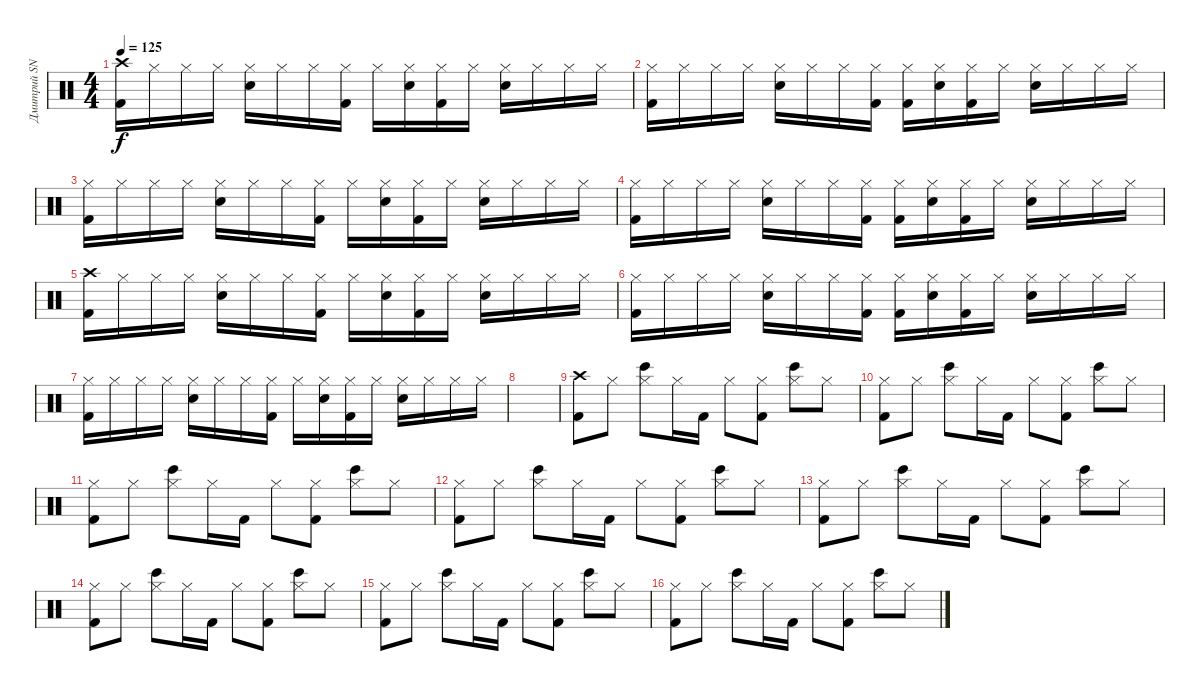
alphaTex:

\track ("Дмитрий SNAKE Хакимов" "Дмитрий SN") {instrument percussion}
\staff {score}
\articulation defaults
\ts (4 4)
\tempo 125
\clef neutral
\ks c
("Crash high (hit)" "Kick (hit) 2").16{dy f} "Hi-Hat (closed)".16 "Hi-Hat (closed)".16 "Hi-Hat (closed)".16 ("Hi-Hat (closed)" "Snare (hit) 2").16 "Hi-Hat (closed)".16 "Hi-Hat (closed)".16 ("Hi-Hat (closed)" "Kick (hit) 2").16 "Hi-Hat (closed)".16 ("Hi-Hat (closed)" "Snare (hit) 2").16 ("Hi-Hat (closed)" "Kick (hit) 2").16 "Hi-Hat (closed)".16 ("Hi-Hat (closed)" "Snare (hit) 2").16 "Hi-Hat (closed)".16 "Hi-Hat (closed)".16 "Hi-Hat (closed)".16 |
("Hi-Hat (closed)" "Kick (hit) 2").16 "Hi-Hat (closed)".16 "Hi-Hat (closed)".16 "Hi-Hat (closed)".16 ("Hi-Hat (closed)" "Snare (hit) 2").16 "Hi-Hat (closed)".16 "Hi-Hat (closed)".16 ("Hi-Hat (closed)" "Kick (hit) 2").16 ("Hi-Hat (closed)" "Kick (hit) 2").16 ("Hi-Hat (closed)" "Snare (hit) 2").16 ("Hi-Hat (closed)" "Kick (hit) 2").16 "Hi-Hat (closed)".16 ("Hi-Hat (closed)" "Snare (hit) 2").16 "Hi-Hat (closed)".16 "Hi-Hat (closed)".16 "Hi-Hat (closed)".16 |
("Hi-Hat (closed)" "Kick (hit) 2").16 "Hi-Hat (closed)".16 "Hi-Hat (closed)".16 "Hi-Hat (closed)".16 ("Hi-Hat (closed)" "Snare (hit) 2").16 "Hi-Hat (closed)".16 "Hi-Hat (closed)".16 ("Hi-Hat (closed)" "Kick (hit) 2").16 "Hi-Hat (closed)".16 ("Hi-Hat (closed)" "Snare (hit) 2").16 ("Hi-Hat (closed)" "Kick (hit) 2").16 "Hi-Hat (closed)".16 ("Hi-Hat (closed)" "Snare (hit) 2").16 "Hi-Hat (closed)".16 "Hi-Hat (closed)".16 "Hi-Hat (closed)".16 |
("Hi-Hat (closed)" "Kick (hit) 2").16 "Hi-Hat (closed)".16 "Hi-Hat (closed)".16 "Hi-Hat (closed)".16 ("Hi-Hat (closed)" "Snare (hit) 2").16 "Hi-Hat (closed)".16 "Hi-Hat (closed)".16 ("Hi-Hat (closed)" "Kick (hit) 2").16 ("Hi-Hat (closed)" "Kick (hit) 2").16 ("Hi-Hat (closed)" "Snare (hit) 2").16 ("Hi-Hat (closed)" "Kick (hit) 2").16 "Hi-Hat (closed)".16 ("Hi-Hat (closed)" "Snare (hit) 2").16 "Hi-Hat (closed)".16 "Hi-Hat (closed)".16 "Hi-Hat (closed)".16 |
("Crash high (hit)" "Kick (hit) 2").16 "Hi-Hat (closed)".16 "Hi-Hat (closed)".16 "Hi-Hat (closed)".16 ("Hi-Hat (closed)" "Snare (hit) 2").16 "Hi-Hat (closed)".16 "Hi-Hat (closed)".16 ("Hi-Hat (closed)" "Kick (hit) 2").16 "Hi-Hat (closed)".16 ("Hi-Hat (closed)" "Snare (hit) 2").16 ("Hi-Hat (closed)" "Kick (hit) 2").16 "Hi-Hat (closed)".16 ("Hi-Hat (closed)" "Snare (hit) 2").16 "Hi-Hat (closed)".16 "Hi-Hat (closed)".16 "Hi-Hat (closed)".16 |
("Hi-Hat (closed)" "Kick (hit) 2").16 "Hi-Hat (closed)".16 "Hi-Hat (closed)".16 "Hi-Hat (closed)".16 ("Hi-Hat (closed)" "Snare (hit) 2").16 "Hi-Hat (closed)".16 "Hi-Hat (closed)".16 ("Hi-Hat (closed)" "Kick (hit) 2").16 ("Hi-Hat (closed)" "Kick (hit) 2").16 ("Hi-Hat (closed)" "Snare (hit) 2").16 ("Hi-Hat (closed)" "Kick (hit) 2").16 "Hi-Hat (closed)".16 ("Hi-Hat (closed)" "Snare (hit) 2").16 "Hi-Hat (closed)".16 "Hi-Hat (closed)".16 "Hi-Hat (closed)".16 |
("Hi-Hat (closed)" "Kick (hit) 2").16 "Hi-Hat (closed)".16 "Hi-Hat (closed)".16 "Hi-Hat (closed)".16 ("Hi-Hat (closed)" "Snare (hit) 2").16 "Hi-Hat (closed)".16 "Hi-Hat (closed)".16 ("Hi-Hat (closed)" "Kick (hit) 2").16 "Hi-Hat (closed)".16 ("Hi-Hat (closed)" "Snare (hit) 2").16 ("Hi-Hat (closed)" "Kick (hit) 2").16 "Hi-Hat (closed)".16 ("Hi-Hat (closed)" "Snare (hit) 2").16 "Hi-Hat (closed)".16 "Hi-Hat (closed)".16 "Hi-Hat (closed)".16 |
|
("Crash high (hit)" "Kick (hit) 2").8 "Hi-Hat (closed)".8 ("Hi-Hat (closed)" "Bongo High (hit)").8 "Hi-Hat (closed)".16 "Kick (hit) 2".16 "Hi-Hat (closed)".8 ("Hi-Hat (closed)" "Kick (hit) 2").8 ("Hi-Hat (closed)" "Bongo High (hit)").8 "Hi-Hat (closed)".8 |
("Hi-Hat (closed)" "Kick (hit) 2").8 "Hi-Hat (closed)".8 ("Hi-Hat (closed)" "Bongo High (hit)").8 "Hi-Hat (closed)".16 "Kick (hit) 2".16 "Hi-Hat (closed)".8 ("Hi-Hat (closed)" "Kick (hit) 2").8 ("Hi-Hat (closed)" "Bongo High (hit)").8 "Hi-Hat (closed)".8 |
("Hi-Hat (closed)" "Kick (hit) 2").8 "Hi-Hat (closed)".8 ("Hi-Hat (closed)" "Bongo High (hit)").8 "Hi-Hat (closed)".16 "Kick (hit) 2".16 "Hi-Hat (closed)".8 ("Hi-Hat (closed)" "Kick (hit) 2").8 ("Hi-Hat (closed)" "Bongo High (hit)").8 "Hi-Hat (closed)".8 |
("Hi-Hat (closed)" "Kick (hit) 2").8 "Hi-Hat (closed)".8 ("Hi-Hat (closed)" "Bongo High (hit)").8 "Hi-Hat (closed)".16 "Kick (hit) 2".16 "Hi-Hat (closed)".8 ("Hi-Hat (closed)" "Kick (hit) 2").8 ("Hi-Hat (closed)" "Bongo High (hit)").8 "Hi-Hat (closed)".8 |
("Hi-Hat (closed)" "Kick (hit) 2").8 "Hi-Hat (closed)".8 ("Hi-Hat (closed)" "Bongo High (hit)").8 "Hi-Hat (closed)".16 "Kick (hit) 2".16 "Hi-Hat (closed)".8 ("Hi-Hat (closed)" "Kick (hit) 2").8 ("Hi-Hat (closed)" "Bongo High (hit)").8 "Hi-Hat (closed)".8 |
("Hi-Hat (closed)" "Kick (hit) 2").8 "Hi-Hat (closed)".8 ("Hi-Hat (closed)" "Bongo High (hit)").8 "Hi-Hat (closed)".16 "Kick (hit) 2".16 "Hi-Hat (closed)".8 ("Hi-Hat (closed)" "Kick (hit) 2").8 ("Hi-Hat (closed)" "Bongo High (hit)").8 "Hi-Hat (closed)".8 |
("Hi-Hat (closed)" "Kick (hit) 2").8 "Hi-Hat (closed)".8 ("Hi-Hat (closed)" "Bongo High (hit)").8 "Hi-Hat (closed)".16 "Kick (hit) 2".16 "Hi-Hat (closed)".8 ("Hi-Hat (closed)" "Kick (hit) 2").8 ("Hi-Hat (closed)" "Bongo High (hit)").8 "Hi-Hat (closed)".8 |
("Hi-Hat (closed)" "Kick (hit) 2").8 "Hi-Hat (closed)".8 ("Hi-Hat (closed)" "Bongo High (hit)").8 "Hi-Hat (closed)".16 "Kick (hit) 2".16 "Hi-Hat (closed)".8 ("Hi-Hat (closed)" "Kick (hit) 2").8 ("Hi-Hat (closed)" "Bongo High (hit)").8 "Hi-Hat (closed)".8
